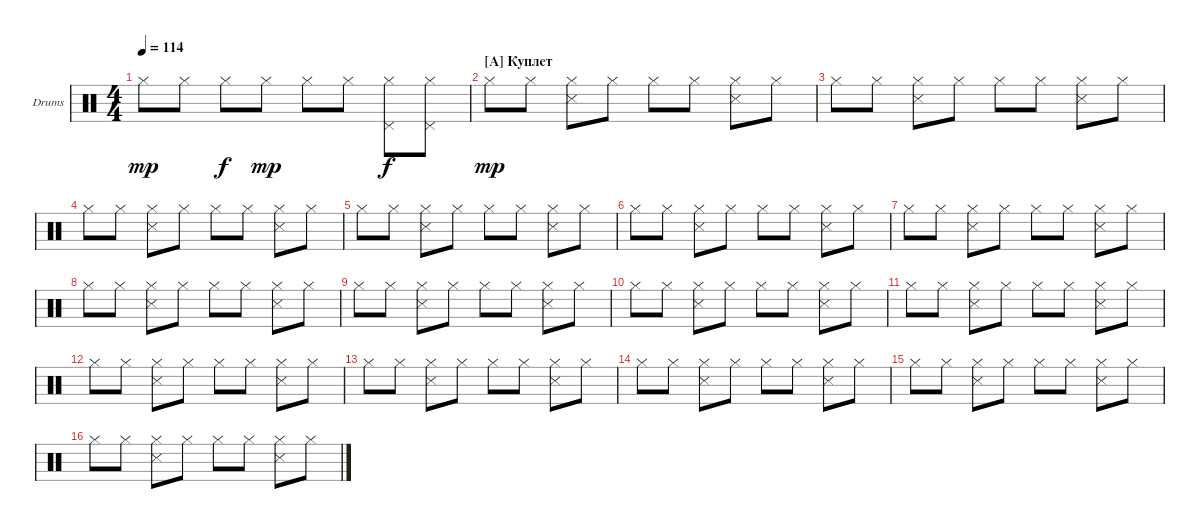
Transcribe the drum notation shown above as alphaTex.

\defaultSystemsLayout 4
\bracketExtendMode groupsimilarinstruments
\firstSystemTrackNameOrientation horizontal
\otherSystemsTrackNameOrientation horizontal
\track ("Е. Кулаков" "Drums") {instrument percussion}
\staff {score}
\articulation defaults
\ts (4 4)
\tempo 114
\clef neutral
\ks c "Hi-Hat (closed)".8{dy mp} "Hi-Hat (closed)".8 "Hi-Hat (closed)".8{dy f} "Hi-Hat (closed)".8{dy mp} "Hi-Hat (closed)".8 "Hi-Hat (closed)".8
("Hi-Hat (closed)" "Pedal Hi-Hat (hit)").8{dy f} ("Hi-Hat (closed)" "Pedal Hi-Hat (hit)").8 |
\section ("A" "Куплет")
"Hi-Hat (closed)".8{dy mp} "Hi-Hat (closed)".8 ("Hi-Hat (closed)" "Snare (side stick) 3").8 "Hi-Hat (closed)".8 "Hi-Hat (closed)".8 "Hi-Hat (closed)".8 ("Hi-Hat (closed)" "Snare (side stick) 3").8 "Hi-Hat (closed)".8 |
"Hi-Hat (closed)".8 "Hi-Hat (closed)".8 ("Hi-Hat (closed)" "Snare (side stick) 3").8 "Hi-Hat (closed)".8 "Hi-Hat (closed)".8 "Hi-Hat (closed)".8 ("Hi-Hat (closed)" "Snare (side stick) 3").8 "Hi-Hat (closed)".8 |
"Hi-Hat (closed)".8 "Hi-Hat (closed)".8 ("Hi-Hat (closed)" "Snare (side stick) 3").8 "Hi-Hat (closed)".8 "Hi-Hat (closed)".8 "Hi-Hat (closed)".8 ("Hi-Hat (closed)" "Snare (side stick) 3").8 "Hi-Hat (closed)".8 |
"Hi-Hat (closed)".8 "Hi-Hat (closed)".8 ("Hi-Hat (closed)" "Snare (side stick) 3").8 "Hi-Hat (closed)".8 "Hi-Hat (closed)".8 "Hi-Hat (closed)".8 ("Hi-Hat (closed)" "Snare (side stick) 3").8 "Hi-Hat (closed)".8 |
"Hi-Hat (closed)".8 "Hi-Hat (closed)".8 ("Hi-Hat (closed)" "Snare (side stick) 3").8 "Hi-Hat (closed)".8 "Hi-Hat (closed)".8 "Hi-Hat (closed)".8 ("Hi-Hat (closed)" "Snare (side stick) 3").8 "Hi-Hat (closed)".8 |
"Hi-Hat (closed)".8 "Hi-Hat (closed)".8 ("Hi-Hat (closed)" "Snare (side stick) 3").8 "Hi-Hat (closed)".8 "Hi-Hat (closed)".8 "Hi-Hat (closed)".8 ("Hi-Hat (closed)" "Snare (side stick) 3").8 "Hi-Hat (closed)".8 |
"Hi-Hat (closed)".8 "Hi-Hat (closed)".8 ("Hi-Hat (closed)" "Snare (side stick) 3").8 "Hi-Hat (closed)".8 "Hi-Hat (closed)".8 "Hi-Hat (closed)".8 ("Hi-Hat (closed)" "Snare (side stick) 3").8 "Hi-Hat (closed)".8 |
"Hi-Hat (closed)".8 "Hi-Hat (closed)".8 ("Hi-Hat (closed)" "Snare (side stick) 3").8 "Hi-Hat (closed)".8 "Hi-Hat (closed)".8 "Hi-Hat (closed)".8 ("Hi-Hat (closed)" "Snare (side stick) 3").8 "Hi-Hat (closed)".8 |
"Hi-Hat (closed)".8 "Hi-Hat (closed)".8 ("Hi-Hat (closed)" "Snare (side stick) 3").8 "Hi-Hat (closed)".8 "Hi-Hat (closed)".8 "Hi-Hat (closed)".8 ("Hi-Hat (closed)" "Snare (side stick) 3").8 "Hi-Hat (closed)".8 |
"Hi-Hat (closed)".8 "Hi-Hat (closed)".8 ("Hi-Hat (closed)" "Snare (side stick) 3").8 "Hi-Hat (closed)".8 "Hi-Hat (closed)".8 "Hi-Hat (closed)".8 ("Hi-Hat (closed)" "Snare (side stick) 3").8 "Hi-Hat (closed)".8 |
"Hi-Hat (closed)".8 "Hi-Hat (closed)".8 ("Hi-Hat (closed)" "Snare (side stick) 3").8 "Hi-Hat (closed)".8 "Hi-Hat (closed)".8 "Hi-Hat (closed)".8 ("Hi-Hat (closed)" "Snare (side stick) 3").8 "Hi-Hat (closed)".8 |
"Hi-Hat (closed)".8 "Hi-Hat (closed)".8 ("Hi-Hat (closed)" "Snare (side stick) 3").8 "Hi-Hat (closed)".8 "Hi-Hat (closed)".8 "Hi-Hat (closed)".8 ("Hi-Hat (closed)" "Snare (side stick) 3").8 "Hi-Hat (closed)".8 |
"Hi-Hat (closed)".8 "Hi-Hat (closed)".8 ("Hi-Hat (closed)" "Snare (side stick) 3").8 "Hi-Hat (closed)".8 "Hi-Hat (closed)".8 "Hi-Hat (closed)".8 ("Hi-Hat (closed)" "Snare (side stick) 3").8 "Hi-Hat (closed)".8 |
"Hi-Hat (closed)".8 "Hi-Hat (closed)".8 ("Hi-Hat (closed)" "Snare (side stick) 3").8 "Hi-Hat (closed)".8 "Hi-Hat (closed)".8 "Hi-Hat (closed)".8 ("Hi-Hat (closed)" "Snare (side stick) 3").8 "Hi-Hat (closed)".8 |
"Hi-Hat (closed)".8 "Hi-Hat (closed)".8 ("Hi-Hat (closed)" "Snare (side stick) 3").8 "Hi-Hat (closed)".8 "Hi-Hat (closed)".8 "Hi-Hat (closed)".8 ("Hi-Hat (closed)" "Snare (side stick) 3").8 "Hi-Hat (closed)".8
